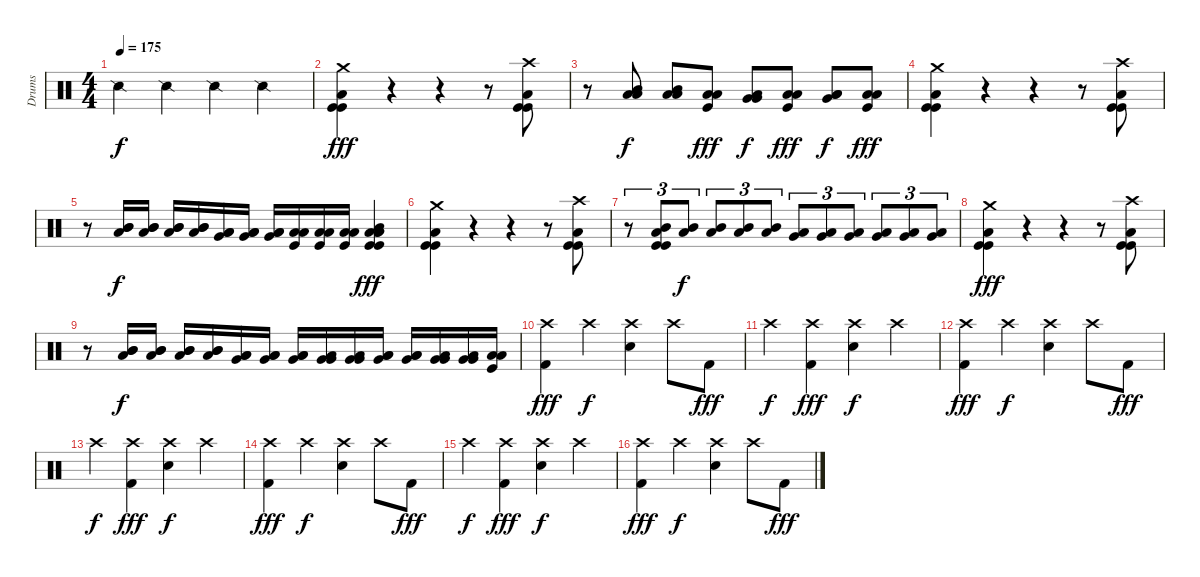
\track ("Drums" "Drums") {instrument percussion}
\staff {score}
\articulation defaults
\ts (4 4)
\tempo 175
\clef neutral
\ks c "Snare (side stick) 2".4{dy f} "Snare (side stick) 2".4 "Snare (side stick) 2".4 "Snare (side stick) 2".4
|
("Crash medium (hit)" "Low Floor Tom (hit)" "Kick (hit)" "Kick (hit)").4{dy fff} r.4 r.4 r.8 ("Crash high (hit)" "Low Floor Tom (hit)" "Kick (hit)" "Kick (hit)").8 |
r.8 ("Low Tom (hit)" "Mid Tom (hit)" "Low Tom (hit)").8{dy f} ("Low Tom (hit)" "Mid Tom (hit)" "Low Tom (hit)").8 ("Low Floor Tom (hit)" "Low Floor Tom (hit)" "Kick (hit)").8{dy fff} ("Very Low Tom (hit)" "Low Tom (hit)" "Very Low Tom (hit)").8{dy f} ("Low Floor Tom (hit)" "Low Floor Tom (hit)" "Kick (hit)").8{dy fff} ("Low Floor Tom (hit)" "Very Low Tom (hit)" "Low Floor Tom (hit)").8{dy f} ("Low Floor Tom (hit)" "Low Floor Tom (hit)" "Kick (hit)").8{dy fff} |
("Crash medium (hit)" "Low Floor Tom (hit)" "Kick (hit)" "Kick (hit)").4 r.4 r.4 r.8 ("Crash high (hit)" "Low Floor Tom (hit)" "Kick (hit)" "Kick (hit)").8 |
r.8 ("Mid Tom (hit)" "Mid Tom (hit)" "Low Tom (hit)").16{dy f} ("Mid Tom (hit)" "Mid Tom (hit)" "Low Tom (hit)").16 ("Mid Tom (hit)" "Mid Tom (hit)" "Low Tom (hit)").16 ("Mid Tom (hit)" "Mid Tom (hit)" "Low Tom (hit)").16 ("Low Tom (hit)" "Low Tom (hit)" "Very Low Tom (hit)").16 ("Low Tom (hit)" "Low Tom (hit)" "Very Low Tom (hit)").16 ("Low Tom (hit)" "Low Tom (hit)" "Very Low Tom (hit)").16 ("Low Floor Tom (hit)" "Low Floor Tom (hit)" "Kick (hit)").16 ("Low Floor Tom (hit)" "Low Floor Tom (hit)" "Kick (hit)").16 ("Low Floor Tom (hit)" "Low Floor Tom (hit)" "Kick (hit)").16 ("Mid Tom (hit)" "Low Tom (hit)" "Low Floor Tom (hit)" "Low Floor Tom (hit)" "Kick (hit)" "Kick (hit)").4{dy fff} |
("Crash medium (hit)" "Low Floor Tom (hit)" "Kick (hit)" "Kick (hit)").4 r.4 r.4 r.8 ("Crash high (hit)" "Low Floor Tom (hit)" "Kick (hit)" "Kick (hit)").8 |
r.8{tu (3 2)} ("Mid Tom (hit)" "Low Tom (hit)" "Kick (hit)" "Kick (hit)").8{tu (3 2)} ("Mid Tom (hit)" "Low Tom (hit)").8{tu (3 2) dy f} ("Mid Tom (hit)" "Low Tom (hit)").8{tu (3 2)} ("Mid Tom (hit)" "Low Tom (hit)").8{tu (3 2)} ("Mid Tom (hit)" "Low Tom (hit)").8{tu (3 2)} ("Low Tom (hit)" "Very Low Tom (hit)").8{tu (3 2)} ("Low Tom (hit)" "Very Low Tom (hit)").8{tu (3 2)} ("Low Tom (hit)" "Very Low Tom (hit)").8{tu (3 2)} ("Low Tom (hit)" "Very Low Tom (hit)").8{tu (3 2)} ("Very Low Tom (hit)" "Low Floor Tom (hit)").8{tu (3 2)} ("Very Low Tom (hit)" "Low Floor Tom (hit)").8{tu (3 2)} |
("Crash medium (hit)" "Low Floor Tom (hit)" "Kick (hit)" "Kick (hit)").4{dy fff} r.4 r.4 r.8 ("Crash high (hit)" "Low Floor Tom (hit)" "Kick (hit)" "Kick (hit)").8 |
r.8 ("Mid Tom (hit)" "Mid Tom (hit)" "Low Tom (hit)").16{dy f} ("Mid Tom (hit)" "Mid Tom (hit)" "Low Tom (hit)").16 ("Mid Tom (hit)" "Mid Tom (hit)" "Low Tom (hit)").16 ("Mid Tom (hit)" "Mid Tom (hit)" "Low Tom (hit)").16 ("Low Tom (hit)" "Low Tom (hit)" "Very Low Tom (hit)").16 ("Low Tom (hit)" "Low Tom (hit)" "Very Low Tom (hit)").16 ("Low Tom (hit)" "Low Tom (hit)" "Very Low Tom (hit)").16 ("Very Low Tom (hit)" "Very Low Tom (hit)" "Low Floor Tom (hit)").16 ("Very Low Tom (hit)" "Very Low Tom (hit)" "Low Floor Tom (hit)").16 ("Low Tom (hit)" "Low Tom (hit)" "Very Low Tom (hit)").16 ("Low Tom (hit)" "Low Tom (hit)" "Very Low Tom (hit)").16 ("Very Low Tom (hit)" "Very Low Tom (hit)" "Low Floor Tom (hit)").16 ("Very Low Tom (hit)" "Very Low Tom (hit)" "Low Floor Tom (hit)").16 ("Low Floor Tom (hit)" "Low Floor Tom (hit)" "Kick (hit)").16 |
("Crash high (hit)" "Kick (hit) 2").4{dy fff} "Crash high (hit)".4{dy f} ("Crash high (hit)" "Electric Snare (hit)").4 "Crash high (hit)".8 "Kick (hit) 2".8{dy fff} |
"Crash high (hit)".4{dy f} ("Crash high (hit)" "Kick (hit) 2").4{dy fff} ("Crash high (hit)" "Electric Snare (hit)").4{dy f} "Crash high (hit)".4 |
("Crash high (hit)" "Kick (hit) 2").4{dy fff} "Crash high (hit)".4{dy f} ("Crash high (hit)" "Electric Snare (hit)").4 "Crash high (hit)".8 "Kick (hit) 2".8{dy fff} |
"Crash high (hit)".4{dy f} ("Crash high (hit)" "Kick (hit) 2").4{dy fff} ("Crash high (hit)" "Electric Snare (hit)").4{dy f} "Crash high (hit)".4 |
("Crash high (hit)" "Kick (hit) 2").4{dy fff} "Crash high (hit)".4{dy f} ("Crash high (hit)" "Electric Snare (hit)").4 "Crash high (hit)".8 "Kick (hit) 2".8{dy fff} |
"Crash high (hit)".4{dy f} ("Crash high (hit)" "Kick (hit) 2").4{dy fff} ("Crash high (hit)" "Electric Snare (hit)").4{dy f} "Crash high (hit)".4 |
("Crash high (hit)" "Kick (hit) 2").4{dy fff} "Crash high (hit)".4{dy f} ("Crash high (hit)" "Electric Snare (hit)").4 "Crash high (hit)".8 "Kick (hit) 2".8{dy fff}
